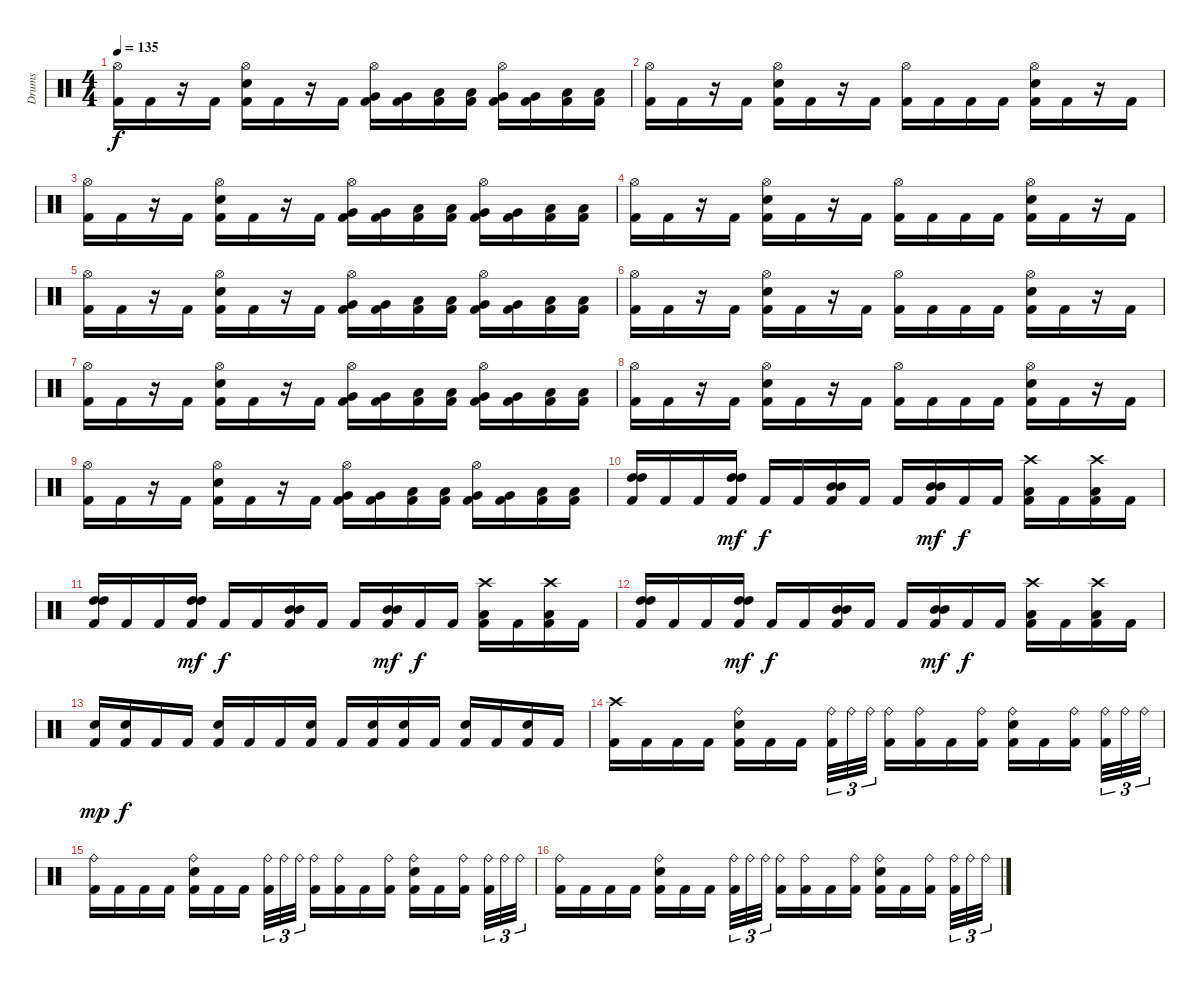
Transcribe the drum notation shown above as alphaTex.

\track ("Drums" "Drums") {instrument percussion}
\staff {score}
\articulation defaults
\ts (4 4)
\tempo 135
\clef neutral
\ks c
("Hi-Hat (open)" "Kick (hit) 2").16{dy f} "Kick (hit) 2".16 r.16 "Kick (hit) 2".16 ("Hi-Hat (open)" "Electric Snare (hit)" "Kick (hit) 2").16 "Kick (hit) 2".16 r.16 "Kick (hit) 2".16 ("Hi-Hat (open)" "Very Low Tom (hit)" "Kick (hit) 2").16 ("Very Low Tom (hit)" "Kick (hit) 2").16 ("Low Floor Tom (hit)" "Kick (hit) 2").16 ("Low Floor Tom (hit)" "Kick (hit) 2").16 ("Hi-Hat (open)" "Very Low Tom (hit)" "Kick (hit) 2").16 ("Very Low Tom (hit)" "Kick (hit) 2").16 ("Low Floor Tom (hit)" "Kick (hit) 2").16 ("Low Floor Tom (hit)" "Kick (hit) 2").16 |
("Hi-Hat (open)" "Kick (hit) 2").16 "Kick (hit) 2".16 r.16 "Kick (hit) 2".16 ("Hi-Hat (open)" "Electric Snare (hit)" "Kick (hit) 2").16 "Kick (hit) 2".16 r.16 "Kick (hit) 2".16 ("Hi-Hat (open)" "Kick (hit) 2").16 "Kick (hit) 2".16 "Kick (hit) 2".16 "Kick (hit) 2".16 ("Hi-Hat (open)" "Electric Snare (hit)" "Kick (hit) 2").16 "Kick (hit) 2".16 r.16 "Kick (hit) 2".16 |
("Hi-Hat (open)" "Kick (hit) 2").16 "Kick (hit) 2".16 r.16 "Kick (hit) 2".16 ("Hi-Hat (open)" "Electric Snare (hit)" "Kick (hit) 2").16 "Kick (hit) 2".16 r.16 "Kick (hit) 2".16 ("Hi-Hat (open)" "Very Low Tom (hit)" "Kick (hit) 2").16 ("Very Low Tom (hit)" "Kick (hit) 2").16 ("Low Floor Tom (hit)" "Kick (hit) 2").16 ("Low Floor Tom (hit)" "Kick (hit) 2").16 ("Hi-Hat (open)" "Very Low Tom (hit)" "Kick (hit) 2").16 ("Very Low Tom (hit)" "Kick (hit) 2").16 ("Low Floor Tom (hit)" "Kick (hit) 2").16 ("Low Floor Tom (hit)" "Kick (hit) 2").16 |
("Hi-Hat (open)" "Kick (hit) 2").16 "Kick (hit) 2".16 r.16 "Kick (hit) 2".16 ("Hi-Hat (open)" "Electric Snare (hit)" "Kick (hit) 2").16 "Kick (hit) 2".16 r.16 "Kick (hit) 2".16 ("Hi-Hat (open)" "Kick (hit) 2").16 "Kick (hit) 2".16 "Kick (hit) 2".16 "Kick (hit) 2".16 ("Hi-Hat (open)" "Electric Snare (hit)" "Kick (hit) 2").16 "Kick (hit) 2".16 r.16 "Kick (hit) 2".16 |
("Hi-Hat (open)" "Kick (hit) 2").16 "Kick (hit) 2".16 r.16 "Kick (hit) 2".16 ("Hi-Hat (open)" "Electric Snare (hit)" "Kick (hit) 2").16 "Kick (hit) 2".16 r.16 "Kick (hit) 2".16 ("Hi-Hat (open)" "Very Low Tom (hit)" "Kick (hit) 2").16 ("Very Low Tom (hit)" "Kick (hit) 2").16 ("Low Floor Tom (hit)" "Kick (hit) 2").16 ("Low Floor Tom (hit)" "Kick (hit) 2").16 ("Hi-Hat (open)" "Very Low Tom (hit)" "Kick (hit) 2").16 ("Very Low Tom (hit)" "Kick (hit) 2").16 ("Low Floor Tom (hit)" "Kick (hit) 2").16 ("Low Floor Tom (hit)" "Kick (hit) 2").16 |
("Hi-Hat (open)" "Kick (hit) 2").16 "Kick (hit) 2".16 r.16 "Kick (hit) 2".16 ("Hi-Hat (open)" "Electric Snare (hit)" "Kick (hit) 2").16 "Kick (hit) 2".16 r.16 "Kick (hit) 2".16 ("Hi-Hat (open)" "Kick (hit) 2").16 "Kick (hit) 2".16 "Kick (hit) 2".16 "Kick (hit) 2".16 ("Hi-Hat (open)" "Electric Snare (hit)" "Kick (hit) 2").16 "Kick (hit) 2".16 r.16 "Kick (hit) 2".16 |
("Hi-Hat (open)" "Kick (hit) 2").16 "Kick (hit) 2".16 r.16 "Kick (hit) 2".16 ("Hi-Hat (open)" "Electric Snare (hit)" "Kick (hit) 2").16 "Kick (hit) 2".16 r.16 "Kick (hit) 2".16 ("Hi-Hat (open)" "Very Low Tom (hit)" "Kick (hit) 2").16 ("Very Low Tom (hit)" "Kick (hit) 2").16 ("Low Floor Tom (hit)" "Kick (hit) 2").16 ("Low Floor Tom (hit)" "Kick (hit) 2").16 ("Hi-Hat (open)" "Very Low Tom (hit)" "Kick (hit) 2").16 ("Very Low Tom (hit)" "Kick (hit) 2").16 ("Low Floor Tom (hit)" "Kick (hit) 2").16 ("Low Floor Tom (hit)" "Kick (hit) 2").16 |
("Hi-Hat (open)" "Kick (hit) 2").16 "Kick (hit) 2".16 r.16 "Kick (hit) 2".16 ("Hi-Hat (open)" "Electric Snare (hit)" "Kick (hit) 2").16 "Kick (hit) 2".16 r.16 "Kick (hit) 2".16 ("Hi-Hat (open)" "Kick (hit) 2").16 "Kick (hit) 2".16 "Kick (hit) 2".16 "Kick (hit) 2".16 ("Hi-Hat (open)" "Electric Snare (hit)" "Kick (hit) 2").16 "Kick (hit) 2".16 r.16 "Kick (hit) 2".16 |
("Hi-Hat (open)" "Kick (hit) 2").16 "Kick (hit) 2".16 r.16 "Kick (hit) 2".16 ("Hi-Hat (open)" "Electric Snare (hit)" "Kick (hit) 2").16 "Kick (hit) 2".16 r.16 "Kick (hit) 2".16 ("Hi-Hat (open)" "Very Low Tom (hit)" "Kick (hit) 2").16 ("Very Low Tom (hit)" "Kick (hit) 2").16 ("Low Floor Tom (hit)" "Kick (hit) 2").16 ("Low Floor Tom (hit)" "Kick (hit) 2").16 ("Hi-Hat (open)" "Very Low Tom (hit)" "Kick (hit) 2").16 ("Very Low Tom (hit)" "Kick (hit) 2").16 ("Low Floor Tom (hit)" "Kick (hit) 2").16 ("Low Floor Tom (hit)" "Kick (hit) 2").16 |
("High Tom (hit)" "High Tom (hit)" "Kick (hit) 2").16 "Kick (hit) 2".16 "Kick (hit) 2".16 ("High Tom (hit)" "High Tom (hit)" "Kick (hit) 2").16{dy mf} "Kick (hit) 2".16{dy f} "Kick (hit) 2".16 ("Mid Tom (hit)" "Mid Tom (hit)" "Kick (hit) 2").16 "Kick (hit) 2".16 "Kick (hit) 2".16 ("Mid Tom (hit)" "Mid Tom (hit)" "Kick (hit) 2").16{dy mf} "Kick (hit) 2".16{dy f} "Kick (hit) 2".16 ("Crash high (hit)" "Low Floor Tom (hit)" "Kick (hit) 2").16 "Kick (hit) 2".16 ("Crash high (hit)" "Low Floor Tom (hit)" "Kick (hit) 2").16 "Kick (hit) 2".16 |
("High Tom (hit)" "High Tom (hit)" "Kick (hit) 2").16 "Kick (hit) 2".16 "Kick (hit) 2".16 ("High Tom (hit)" "High Tom (hit)" "Kick (hit) 2").16{dy mf} "Kick (hit) 2".16{dy f} "Kick (hit) 2".16 ("Mid Tom (hit)" "Mid Tom (hit)" "Kick (hit) 2").16 "Kick (hit) 2".16 "Kick (hit) 2".16 ("Mid Tom (hit)" "Mid Tom (hit)" "Kick (hit) 2").16{dy mf} "Kick (hit) 2".16{dy f} "Kick (hit) 2".16 ("Crash high (hit)" "Low Floor Tom (hit)" "Kick (hit) 2").16 "Kick (hit) 2".16 ("Crash high (hit)" "Low Floor Tom (hit)" "Kick (hit) 2").16 "Kick (hit) 2".16 |
("High Tom (hit)" "High Tom (hit)" "Kick (hit) 2").16 "Kick (hit) 2".16 "Kick (hit) 2".16 ("High Tom (hit)" "High Tom (hit)" "Kick (hit) 2").16{dy mf} "Kick (hit) 2".16{dy f} "Kick (hit) 2".16 ("Mid Tom (hit)" "Mid Tom (hit)" "Kick (hit) 2").16 "Kick (hit) 2".16 "Kick (hit) 2".16 ("Mid Tom (hit)" "Mid Tom (hit)" "Kick (hit) 2").16{dy mf} "Kick (hit) 2".16{dy f} "Kick (hit) 2".16 ("Crash high (hit)" "Low Floor Tom (hit)" "Kick (hit) 2").16 "Kick (hit) 2".16 ("Crash high (hit)" "Low Floor Tom (hit)" "Kick (hit) 2").16 "Kick (hit) 2".16 |
("Electric Snare (hit)" "Kick (hit) 2").16{dy mp} ("Electric Snare (hit)" "Kick (hit) 2").16{dy f} "Kick (hit) 2".16 "Kick (hit) 2".16 ("Electric Snare (hit)" "Kick (hit) 2").16 "Kick (hit) 2".16 "Kick (hit) 2".16 ("Electric Snare (hit)" "Kick (hit) 2").16 "Kick (hit) 2".16 ("Electric Snare (hit)" "Kick (hit) 2").16 ("Electric Snare (hit)" "Kick (hit) 2").16 "Kick (hit) 2".16 ("Electric Snare (hit)" "Kick (hit) 2").16 "Kick (hit) 2".16 ("Electric Snare (hit)" "Kick (hit) 2").16 "Kick (hit) 2".16 |
("Crash high (hit)" "Kick (hit) 2").16 "Kick (hit) 2".16 "Kick (hit) 2".16 "Kick (hit) 2".16 ("Ride (bell)" "Electric Snare (hit)" "Kick (hit) 2").16 "Kick (hit) 2".16 "Kick (hit) 2".16 ("Ride (bell)" "Kick (hit) 2").32{tu (3 2)} "Ride (bell)".32{tu (3 2)} "Ride (bell)".32{tu (3 2)} ("Ride (bell)" "Kick (hit) 2").16 ("Ride (bell)" "Kick (hit) 2").16 "Kick (hit) 2".16 ("Ride (bell)" "Kick (hit) 2").16 ("Ride (bell)" "Electric Snare (hit)" "Kick (hit) 2").16 "Kick (hit) 2".16 ("Ride (bell)" "Kick (hit) 2").16 ("Ride (bell)" "Kick (hit) 2").32{tu (3 2)} "Ride (bell)".32{tu (3 2)} "Ride (bell)".32{tu (3 2)} |
("Ride (bell)" "Kick (hit) 2").16 "Kick (hit) 2".16 "Kick (hit) 2".16 "Kick (hit) 2".16 ("Ride (bell)" "Electric Snare (hit)" "Kick (hit) 2").16 "Kick (hit) 2".16 "Kick (hit) 2".16 ("Ride (bell)" "Kick (hit) 2").32{tu (3 2)} "Ride (bell)".32{tu (3 2)} "Ride (bell)".32{tu (3 2)} ("Ride (bell)" "Kick (hit) 2").16 ("Ride (bell)" "Kick (hit) 2").16 "Kick (hit) 2".16 ("Ride (bell)" "Kick (hit) 2").16 ("Ride (bell)" "Electric Snare (hit)" "Kick (hit) 2").16 "Kick (hit) 2".16 ("Ride (bell)" "Kick (hit) 2").16 ("Ride (bell)" "Kick (hit) 2").32{tu (3 2)} "Ride (bell)".32{tu (3 2)} "Ride (bell)".32{tu (3 2)} |
("Ride (bell)" "Kick (hit) 2").16 "Kick (hit) 2".16 "Kick (hit) 2".16 "Kick (hit) 2".16 ("Ride (bell)" "Electric Snare (hit)" "Kick (hit) 2").16 "Kick (hit) 2".16 "Kick (hit) 2".16 ("Ride (bell)" "Kick (hit) 2").32{tu (3 2)} "Ride (bell)".32{tu (3 2)} "Ride (bell)".32{tu (3 2)} ("Ride (bell)" "Kick (hit) 2").16 ("Ride (bell)" "Kick (hit) 2").16 "Kick (hit) 2".16 ("Ride (bell)" "Kick (hit) 2").16 ("Ride (bell)" "Electric Snare (hit)" "Kick (hit) 2").16 "Kick (hit) 2".16 ("Ride (bell)" "Kick (hit) 2").16 ("Ride (bell)" "Kick (hit) 2").32{tu (3 2)} "Ride (bell)".32{tu (3 2)} "Ride (bell)".32{tu (3 2)}
